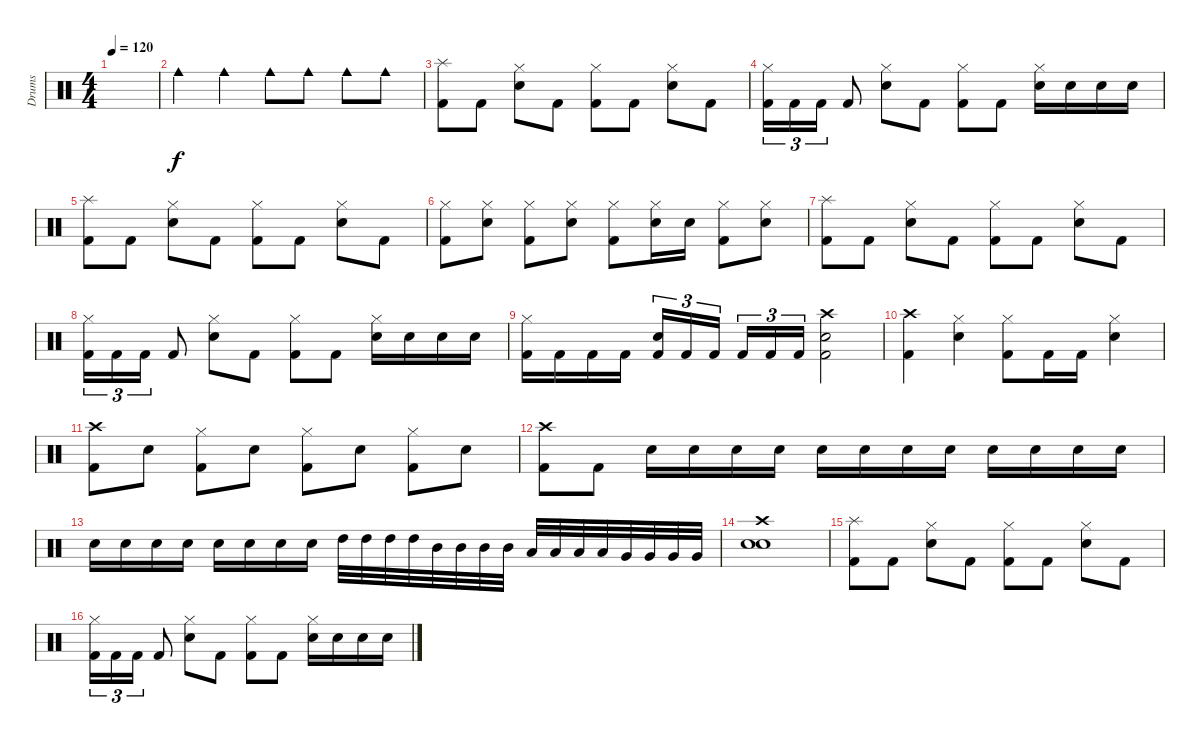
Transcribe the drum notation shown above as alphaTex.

\track ("Drums" "Drums") {instrument percussion}
\staff {score}
\articulation defaults
\ts (4 4)
\tempo 120
\clef neutral
\ks c
|
"Cowbell medium (hit)".4 "Cowbell medium (hit)".4 "Cowbell medium (hit)".8 "Cowbell medium (hit)".8 "Cowbell medium (hit)".8 "Cowbell medium (hit)".8 |
("Splash (hit)" "Kick (hit) 2").8 "Kick (hit) 2".8 ("Hi-Hat (closed)" "Electric Snare (hit)").8 "Kick (hit) 2".8 ("Hi-Hat (closed)" "Kick (hit) 2").8 "Kick (hit) 2".8 ("Hi-Hat (closed)" "Electric Snare (hit)").8 "Kick (hit) 2".8 |
("Hi-Hat (closed)" "Kick (hit) 2").16{tu (3 2)} "Kick (hit) 2".16{tu (3 2)} "Kick (hit) 2".16{tu (3 2)} "Kick (hit) 2".8 ("Hi-Hat (closed)" "Electric Snare (hit)").8 "Kick (hit) 2".8 ("Hi-Hat (closed)" "Kick (hit) 2").8 "Kick (hit) 2".8 ("Hi-Hat (closed)" "Electric Snare (hit)").16 "Electric Snare (hit)".16 "Electric Snare (hit)".16 "Electric Snare (hit)".16 |
("Splash (hit)" "Kick (hit) 2").8 "Kick (hit) 2".8 ("Hi-Hat (closed)" "Electric Snare (hit)").8 "Kick (hit) 2".8 ("Hi-Hat (closed)" "Kick (hit) 2").8 "Kick (hit) 2".8 ("Hi-Hat (closed)" "Electric Snare (hit)").8 "Kick (hit) 2".8 |
("Hi-Hat (closed)" "Kick (hit) 2").8 ("Hi-Hat (closed)" "Electric Snare (hit)").8 ("Hi-Hat (closed)" "Kick (hit) 2").8 ("Hi-Hat (closed)" "Electric Snare (hit)").8 ("Hi-Hat (closed)" "Kick (hit) 2").8 ("Hi-Hat (closed)" "Electric Snare (hit)").16 "Electric Snare (hit)".16 ("Hi-Hat (closed)" "Kick (hit) 2").8 ("Hi-Hat (closed)" "Electric Snare (hit)").8 |
("Splash (hit)" "Kick (hit) 2").8 "Kick (hit) 2".8 ("Hi-Hat (closed)" "Electric Snare (hit)").8 "Kick (hit) 2".8 ("Hi-Hat (closed)" "Kick (hit) 2").8 "Kick (hit) 2".8 ("Hi-Hat (closed)" "Electric Snare (hit)").8 "Kick (hit) 2".8 |
("Hi-Hat (closed)" "Kick (hit) 2").16{tu (3 2)} "Kick (hit) 2".16{tu (3 2)} "Kick (hit) 2".16{tu (3 2)} "Kick (hit) 2".8 ("Hi-Hat (closed)" "Electric Snare (hit)").8 "Kick (hit) 2".8 ("Hi-Hat (closed)" "Kick (hit) 2").8 "Kick (hit) 2".8 ("Hi-Hat (closed)" "Electric Snare (hit)").16 "Electric Snare (hit)".16 "Electric Snare (hit)".16 "Electric Snare (hit)".16 |
("Hi-Hat (closed)" "Kick (hit) 2").16 "Kick (hit) 2".16 "Kick (hit) 2".16 "Kick (hit) 2".16 ("Electric Snare (hit)" "Kick (hit) 2").16{tu (3 2)} "Kick (hit) 2".16{tu (3 2)} "Kick (hit) 2".16{tu (3 2)} "Kick (hit) 2".16{tu (3 2)} "Kick (hit) 2".16{tu (3 2)} "Kick (hit) 2".16{tu (3 2)} ("Crash high (hit)" "Electric Snare (hit)" "Kick (hit) 2").2 |
("Crash high (hit)" "Kick (hit) 2").4 ("Hi-Hat (closed)" "Electric Snare (hit)").4 ("Hi-Hat (closed)" "Kick (hit) 2").8 "Kick (hit) 2".16 "Kick (hit) 2".16 ("Hi-Hat (closed)" "Electric Snare (hit)").4 |
("Crash high (hit)" "Kick (hit) 2").8 "Electric Snare (hit)".8 ("Hi-Hat (closed)" "Kick (hit) 2").8 "Electric Snare (hit)".8 ("Hi-Hat (closed)" "Kick (hit) 2").8 "Electric Snare (hit)".8 ("Hi-Hat (closed)" "Kick (hit) 2").8 "Electric Snare (hit)".8 |
("Crash high (hit)" "Kick (hit) 2").8 "Kick (hit) 2".8 "Electric Snare (hit)".16 "Electric Snare (hit)".16 "Electric Snare (hit)".16 "Electric Snare (hit)".16 "Electric Snare (hit)".16 "Electric Snare (hit)".16 "Electric Snare (hit)".16 "Electric Snare (hit)".16 "Electric Snare (hit)".16 "Electric Snare (hit)".16 "Electric Snare (hit)".16 "Electric Snare (hit)".16 |
"Electric Snare (hit)".16 "Electric Snare (hit)".16 "Electric Snare (hit)".16 "Electric Snare (hit)".16 "Electric Snare (hit)".16 "Electric Snare (hit)".16 "Electric Snare (hit)".16 "Electric Snare (hit)".16 "High Tom (hit)".32 "High Tom (hit)".32 "High Tom (hit)".32 "High Tom (hit)".32 "Mid Tom (hit)".32 "Mid Tom (hit)".32 "Mid Tom (hit)".32 "Mid Tom (hit)".32 "Low Tom (hit)".32 "Low Tom (hit)".32 "Low Tom (hit)".32 "Low Tom (hit)".32 "Very Low Tom (hit)".32 "Very Low Tom (hit)".32 "Very Low Tom (hit)".32 "Very Low Tom (hit)".32 |
("Crash high (hit)" "Electric Snare (hit)" "Snare (hit) 2").1 |
("Splash (hit)" "Kick (hit) 2").8 "Kick (hit) 2".8 ("Hi-Hat (closed)" "Electric Snare (hit)").8 "Kick (hit) 2".8 ("Hi-Hat (closed)" "Kick (hit) 2").8 "Kick (hit) 2".8 ("Hi-Hat (closed)" "Electric Snare (hit)").8 "Kick (hit) 2".8 |
("Hi-Hat (closed)" "Kick (hit) 2").16{tu (3 2)} "Kick (hit) 2".16{tu (3 2)} "Kick (hit) 2".16{tu (3 2)} "Kick (hit) 2".8 ("Hi-Hat (closed)" "Electric Snare (hit)").8 "Kick (hit) 2".8 ("Hi-Hat (closed)" "Kick (hit) 2").8 "Kick (hit) 2".8 ("Hi-Hat (closed)" "Electric Snare (hit)").16 "Electric Snare (hit)".16 "Electric Snare (hit)".16 "Electric Snare (hit)".16
